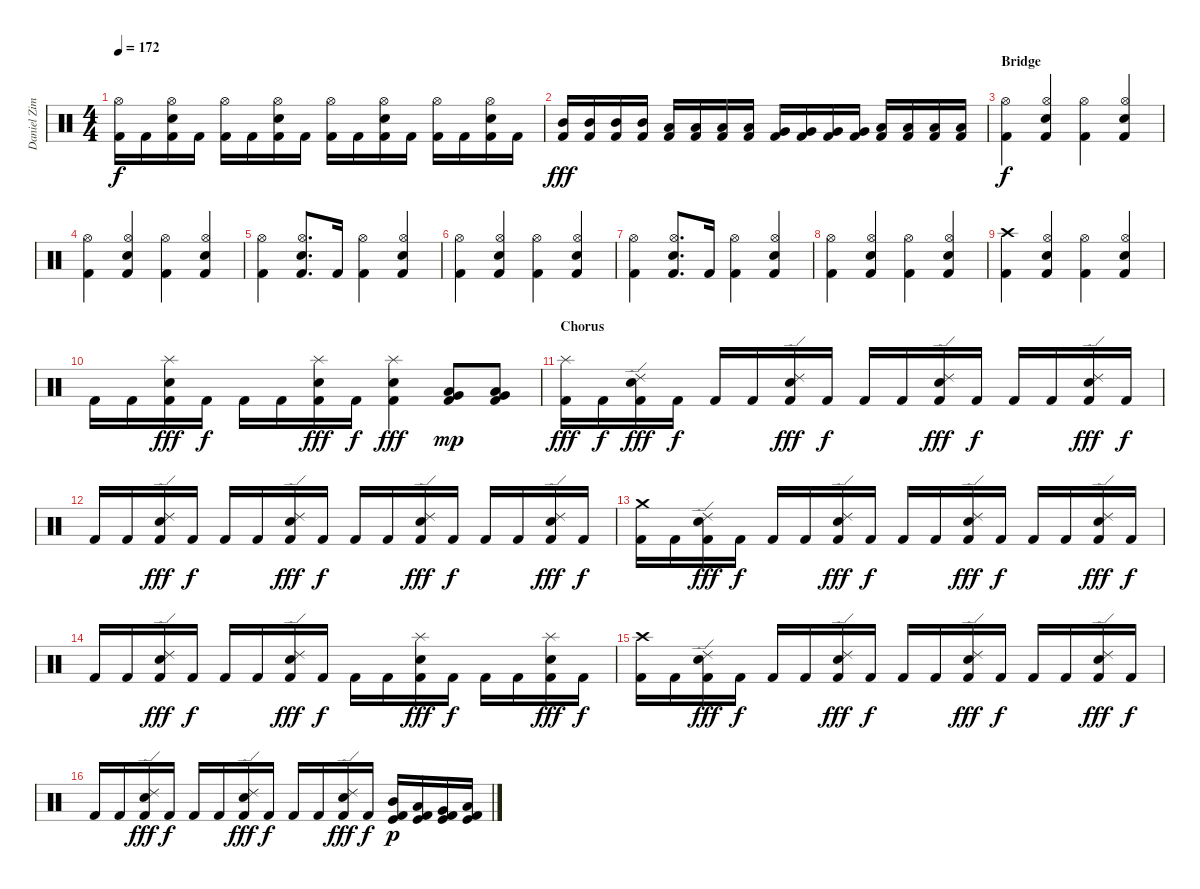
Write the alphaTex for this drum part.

\track ("Daniel Zimmermann - Drums" "Daniel Zim") {instrument percussion}
\staff {score}
\articulation defaults
\ts (4 4)
\tempo 172
\clef neutral
\ks c
("Kick (hit) 2" "Hi-Hat (open)").16{dy f} "Kick (hit) 2".16 ("Kick (hit) 2" "Electric Snare (hit)" "Hi-Hat (open)").16 "Kick (hit) 2".16 ("Kick (hit) 2" "Hi-Hat (open)").16 "Kick (hit) 2".16 ("Kick (hit) 2" "Electric Snare (hit)" "Hi-Hat (open)").16 "Kick (hit) 2".16 ("Kick (hit) 2" "Hi-Hat (open)").16 "Kick (hit) 2".16 ("Kick (hit) 2" "Electric Snare (hit)" "Hi-Hat (open)").16 "Kick (hit) 2".16 ("Kick (hit) 2" "Hi-Hat (open)").16 "Kick (hit) 2".16 ("Kick (hit) 2" "Electric Snare (hit)" "Hi-Hat (open)").16 "Kick (hit) 2".16 |
("Kick (hit) 2" "Mid Tom (hit)").16{dy fff} ("Kick (hit) 2" "Mid Tom (hit)").16 ("Kick (hit) 2" "Mid Tom (hit)").16 ("Kick (hit) 2" "Mid Tom (hit)").16 ("Kick (hit) 2" "Low Tom (hit)").16 ("Kick (hit) 2" "Low Tom (hit)").16 ("Kick (hit) 2" "Low Tom (hit)").16 ("Kick (hit) 2" "Low Tom (hit)").16 ("Kick (hit) 2" "Very Low Tom (hit)").16 ("Kick (hit) 2" "Very Low Tom (hit)").16 ("Kick (hit) 2" "Very Low Tom (hit)").16 ("Kick (hit) 2" "Very Low Tom (hit)").16 ("Kick (hit) 2" "Low Floor Tom (hit)").16 ("Kick (hit) 2" "Low Floor Tom (hit)").16 ("Kick (hit) 2" "Low Floor Tom (hit)").16 ("Kick (hit) 2" "Low Floor Tom (hit)").16 |
\section ("" "Bridge")
("Kick (hit) 2" "Hi-Hat (open)").4{dy f} ("Kick (hit) 2" "Electric Snare (hit)" "Hi-Hat (open)").4 ("Kick (hit) 2" "Hi-Hat (open)").4 ("Kick (hit) 2" "Electric Snare (hit)" "Hi-Hat (open)").4 |
("Kick (hit) 2" "Hi-Hat (open)").4 ("Kick (hit) 2" "Electric Snare (hit)" "Hi-Hat (open)").4 ("Kick (hit) 2" "Hi-Hat (open)").4 ("Kick (hit) 2" "Electric Snare (hit)" "Hi-Hat (open)").4 |
("Kick (hit) 2" "Hi-Hat (open)").4 ("Kick (hit) 2" "Electric Snare (hit)" "Hi-Hat (open)").8{d} "Kick (hit) 2".16 ("Kick (hit) 2" "Hi-Hat (open)").4 ("Kick (hit) 2" "Electric Snare (hit)" "Hi-Hat (open)").4 |
("Kick (hit) 2" "Hi-Hat (open)").4 ("Kick (hit) 2" "Electric Snare (hit)" "Hi-Hat (open)").4 ("Kick (hit) 2" "Hi-Hat (open)").4 ("Kick (hit) 2" "Electric Snare (hit)" "Hi-Hat (open)").4 |
("Kick (hit) 2" "Hi-Hat (open)").4 ("Kick (hit) 2" "Electric Snare (hit)" "Hi-Hat (open)").8{d} "Kick (hit) 2".16 ("Kick (hit) 2" "Hi-Hat (open)").4 ("Kick (hit) 2" "Electric Snare (hit)" "Hi-Hat (open)").4 |
("Kick (hit) 2" "Hi-Hat (open)").4 ("Kick (hit) 2" "Electric Snare (hit)" "Hi-Hat (open)").4 ("Kick (hit) 2" "Hi-Hat (open)").4 ("Kick (hit) 2" "Electric Snare (hit)" "Hi-Hat (open)").4 |
("Kick (hit) 2" "Crash high (hit)").4 ("Kick (hit) 2" "Electric Snare (hit)" "Hi-Hat (open)").4 ("Kick (hit) 2" "Hi-Hat (open)").4 ("Kick (hit) 2" "Electric Snare (hit)" "Hi-Hat (open)").4 |
"Kick (hit) 2".16 "Kick (hit) 2".16 ("Kick (hit) 2" "Electric Snare (hit)" "Splash (hit)").16{dy fff} "Kick (hit) 2".16{dy f} "Kick (hit) 2".16 "Kick (hit) 2".16 ("Kick (hit) 2" "Electric Snare (hit)" "Splash (hit)").16{dy fff} "Kick (hit) 2".16{dy f} ("Kick (hit) 2" "Electric Snare (hit)" "Splash (hit)").4{dy fff} ("Kick (hit) 2" "Low Tom (hit)" "Very Low Tom (hit)").8{dy mp} ("Kick (hit) 2" "Low Tom (hit)" "Very Low Tom (hit)").8 |
\section ("" "Chorus")
("Kick (hit) 2" "Splash (hit)").16{dy fff} "Kick (hit) 2".16{dy f} ("Kick (hit) 2" "Electric Snare (hit)" "Ride (edge) 2").16{dy fff} "Kick (hit) 2".16{dy f} "Kick (hit) 2".16 "Kick (hit) 2".16 ("Kick (hit) 2" "Electric Snare (hit)" "Ride (edge) 2").16{dy fff} "Kick (hit) 2".16{dy f} "Kick (hit) 2".16 "Kick (hit) 2".16 ("Kick (hit) 2" "Electric Snare (hit)" "Ride (edge) 2").16{dy fff} "Kick (hit) 2".16{dy f} "Kick (hit) 2".16 "Kick (hit) 2".16 ("Kick (hit) 2" "Electric Snare (hit)" "Ride (edge) 2").16{dy fff} "Kick (hit) 2".16{dy f} |
"Kick (hit) 2".16 "Kick (hit) 2".16 ("Kick (hit) 2" "Electric Snare (hit)" "Ride (edge) 2").16{dy fff} "Kick (hit) 2".16{dy f} "Kick (hit) 2".16 "Kick (hit) 2".16 ("Kick (hit) 2" "Electric Snare (hit)" "Ride (edge) 2").16{dy fff} "Kick (hit) 2".16{dy f} "Kick (hit) 2".16 "Kick (hit) 2".16 ("Kick (hit) 2" "Electric Snare (hit)" "Ride (edge) 2").16{dy fff} "Kick (hit) 2".16{dy f} "Kick (hit) 2".16 "Kick (hit) 2".16 ("Kick (hit) 2" "Electric Snare (hit)" "Ride (edge) 2").16{dy fff} "Kick (hit) 2".16{dy f} |
("Kick (hit) 2" "Crash medium (hit)").16 "Kick (hit) 2".16 ("Kick (hit) 2" "Electric Snare (hit)" "Ride (edge) 2").16{dy fff} "Kick (hit) 2".16{dy f} "Kick (hit) 2".16 "Kick (hit) 2".16 ("Kick (hit) 2" "Electric Snare (hit)" "Ride (edge) 2").16{dy fff} "Kick (hit) 2".16{dy f} "Kick (hit) 2".16 "Kick (hit) 2".16 ("Kick (hit) 2" "Electric Snare (hit)" "Ride (edge) 2").16{dy fff} "Kick (hit) 2".16{dy f} "Kick (hit) 2".16 "Kick (hit) 2".16 ("Kick (hit) 2" "Electric Snare (hit)" "Ride (edge) 2").16{dy fff} "Kick (hit) 2".16{dy f} |
"Kick (hit) 2".16 "Kick (hit) 2".16 ("Kick (hit) 2" "Electric Snare (hit)" "Ride (edge) 2").16{dy fff} "Kick (hit) 2".16{dy f} "Kick (hit) 2".16 "Kick (hit) 2".16 ("Kick (hit) 2" "Electric Snare (hit)" "Ride (edge) 2").16{dy fff} "Kick (hit) 2".16{dy f} "Kick (hit) 2".16 "Kick (hit) 2".16 ("Kick (hit) 2" "Electric Snare (hit)" "Splash (hit)").16{dy fff} "Kick (hit) 2".16{dy f} "Kick (hit) 2".16 "Kick (hit) 2".16 ("Kick (hit) 2" "Electric Snare (hit)" "Splash (hit)").16{dy fff} "Kick (hit) 2".16{dy f} |
("Kick (hit) 2" "Crash high (hit)").16 "Kick (hit) 2".16 ("Kick (hit) 2" "Electric Snare (hit)" "Ride (edge) 2").16{dy fff} "Kick (hit) 2".16{dy f} "Kick (hit) 2".16 "Kick (hit) 2".16 ("Kick (hit) 2" "Electric Snare (hit)" "Ride (edge) 2").16{dy fff} "Kick (hit) 2".16{dy f} "Kick (hit) 2".16 "Kick (hit) 2".16 ("Kick (hit) 2" "Electric Snare (hit)" "Ride (edge) 2").16{dy fff} "Kick (hit) 2".16{dy f} "Kick (hit) 2".16 "Kick (hit) 2".16 ("Kick (hit) 2" "Electric Snare (hit)" "Ride (edge) 2").16{dy fff} "Kick (hit) 2".16{dy f} |
"Kick (hit) 2".16 "Kick (hit) 2".16 ("Kick (hit) 2" "Electric Snare (hit)" "Ride (edge) 2").16{dy fff} "Kick (hit) 2".16{dy f} "Kick (hit) 2".16 "Kick (hit) 2".16 ("Kick (hit) 2" "Electric Snare (hit)" "Ride (edge) 2").16{dy fff} "Kick (hit) 2".16{dy f} "Kick (hit) 2".16 "Kick (hit) 2".16 ("Kick (hit) 2" "Electric Snare (hit)" "Ride (edge) 2").16{dy fff} "Kick (hit) 2".16{dy f} ("Kick (hit) 2" "Kick (hit)" "Mid Tom (hit)").16{dy p} ("Kick (hit) 2" "Kick (hit)" "Low Tom (hit)").16 ("Kick (hit) 2" "Kick (hit)" "Very Low Tom (hit)").16 ("Kick (hit) 2" "Kick (hit)" "Low Floor Tom (hit)").16
